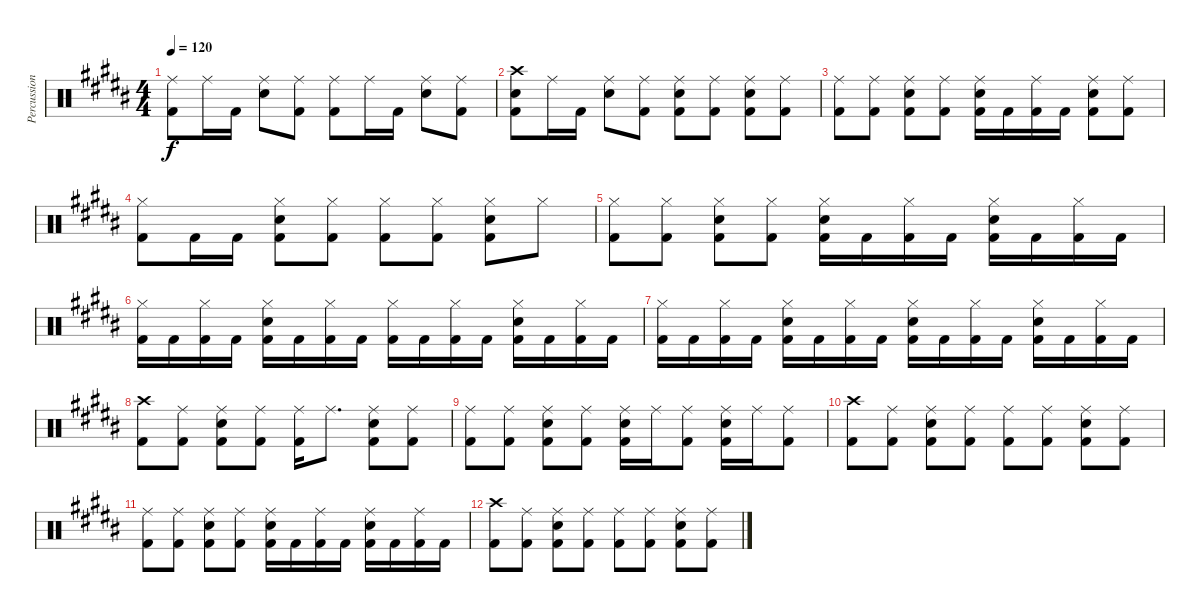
\track ("Percussion" "Percussion") {instrument percussion}
\staff {score}
\articulation defaults
\ts (4 4)
\tempo 120
\clef neutral
\ks b
("Ride (middle)" "Kick (hit) 2").8{dy f} "Ride (middle)".16 "Kick (hit) 2".16 ("Ride (middle)" "Snare (hit) 2").8 ("Ride (middle)" "Kick (hit) 2").8 ("Ride (middle)" "Kick (hit) 2").8 "Ride (middle)".16 "Kick (hit) 2".16 ("Ride (middle)" "Snare (hit) 2").8 ("Ride (middle)" "Kick (hit) 2").8 |
("Crash high (hit)" "Snare (hit) 2" "Kick (hit) 2").8 "Ride (middle)".16 "Kick (hit) 2".16 ("Ride (middle)" "Snare (hit) 2").8 ("Ride (middle)" "Kick (hit) 2").8 ("Ride (middle)" "Kick (hit) 2" "Snare (hit) 2").8 ("Ride (middle)" "Kick (hit) 2").8 ("Ride (middle)" "Kick (hit) 2" "Snare (hit) 2").8 ("Ride (middle)" "Kick (hit) 2").8 |
("Ride (middle)" "Kick (hit) 2").8 ("Ride (middle)" "Kick (hit) 2").8 ("Ride (middle)" "Snare (hit) 2" "Kick (hit) 2").8 ("Ride (middle)" "Kick (hit) 2").8 ("Ride (middle)" "Snare (hit) 2" "Kick (hit) 2").16 "Kick (hit) 2".16 ("Ride (middle)" "Kick (hit) 2").16 "Kick (hit) 2".16 ("Ride (middle)" "Snare (hit) 2" "Kick (hit) 2").8 ("Ride (middle)" "Kick (hit) 2").8 |
("Hi-Hat (closed)" "Kick (hit) 2").8 "Kick (hit) 2".16 "Kick (hit) 2".16 ("Hi-Hat (closed)" "Snare (hit) 2" "Kick (hit) 2").8 ("Hi-Hat (closed)" "Kick (hit) 2").8 ("Hi-Hat (closed)" "Kick (hit) 2").8 ("Hi-Hat (closed)" "Kick (hit) 2").8 ("Hi-Hat (closed)" "Snare (hit) 2" "Kick (hit) 2").8 "Hi-Hat (closed)".8 |
("Hi-Hat (closed)" "Kick (hit) 2").8 ("Hi-Hat (closed)" "Kick (hit) 2").8 ("Hi-Hat (closed)" "Snare (hit) 2" "Kick (hit) 2").8 ("Hi-Hat (closed)" "Kick (hit) 2").8 ("Hi-Hat (closed)" "Snare (hit) 2" "Kick (hit) 2").16 "Kick (hit) 2".16 ("Hi-Hat (closed)" "Kick (hit) 2").16 "Kick (hit) 2".16 ("Hi-Hat (closed)" "Snare (hit) 2" "Kick (hit) 2").16 "Kick (hit) 2".16 ("Hi-Hat (closed)" "Kick (hit) 2").16 "Kick (hit) 2".16 |
("Hi-Hat (closed)" "Kick (hit) 2").16 "Kick (hit) 2".16 ("Hi-Hat (closed)" "Kick (hit) 2").16 "Kick (hit) 2".16 ("Hi-Hat (closed)" "Snare (hit) 2" "Kick (hit) 2").16 "Kick (hit) 2".16 ("Hi-Hat (closed)" "Kick (hit) 2").16 "Kick (hit) 2".16 ("Hi-Hat (closed)" "Kick (hit) 2").16 "Kick (hit) 2".16 ("Hi-Hat (closed)" "Kick (hit) 2").16 "Kick (hit) 2".16 ("Hi-Hat (closed)" "Snare (hit) 2" "Kick (hit) 2").16 "Kick (hit) 2".16 ("Hi-Hat (closed)" "Kick (hit) 2").16 "Kick (hit) 2".16 |
("Hi-Hat (closed)" "Kick (hit) 2").16 "Kick (hit) 2".16 ("Hi-Hat (closed)" "Kick (hit) 2").16 "Kick (hit) 2".16 ("Hi-Hat (closed)" "Snare (hit) 2" "Kick (hit) 2").16 "Kick (hit) 2".16 ("Hi-Hat (closed)" "Kick (hit) 2").16 "Kick (hit) 2".16 ("Hi-Hat (closed)" "Snare (hit) 2" "Kick (hit) 2").16 "Kick (hit) 2".16 ("Hi-Hat (closed)" "Kick (hit) 2").16 "Kick (hit) 2".16 ("Hi-Hat (closed)" "Snare (hit) 2" "Kick (hit) 2").16 "Kick (hit) 2".16 ("Hi-Hat (closed)" "Kick (hit) 2").16 "Kick (hit) 2".16 |
("Crash high (hit)" "Kick (hit) 2").8 ("Ride (middle)" "Kick (hit) 2").8 ("Ride (middle)" "Snare (hit) 2" "Kick (hit) 2").8 ("Ride (middle)" "Kick (hit) 2").8 ("Ride (middle)" "Kick (hit) 2").16 "Ride (middle)".8{d} ("Ride (middle)" "Snare (hit) 2" "Kick (hit) 2").8 ("Ride (middle)" "Kick (hit) 2").8 |
("Ride (middle)" "Kick (hit) 2").8 ("Ride (middle)" "Kick (hit) 2").8 ("Ride (middle)" "Snare (hit) 2" "Kick (hit) 2").8 ("Ride (middle)" "Kick (hit) 2").8 ("Ride (middle)" "Snare (hit) 2" "Kick (hit) 2").16 "Ride (middle)".16 ("Ride (middle)" "Kick (hit) 2").8 ("Ride (middle)" "Snare (hit) 2" "Kick (hit) 2").16 "Ride (middle)".16 ("Ride (middle)" "Kick (hit) 2").8 |
("Crash high (hit)" "Kick (hit) 2").8 ("Ride (middle)" "Kick (hit) 2").8 ("Ride (middle)" "Snare (hit) 2" "Kick (hit) 2").8 ("Ride (middle)" "Kick (hit) 2").8 ("Ride (middle)" "Kick (hit) 2").8 ("Ride (middle)" "Kick (hit) 2").8 ("Ride (middle)" "Snare (hit) 2" "Kick (hit) 2").8 ("Ride (middle)" "Kick (hit) 2").8 |
("Ride (middle)" "Kick (hit) 2").8 ("Ride (middle)" "Kick (hit) 2").8 ("Ride (middle)" "Snare (hit) 2" "Kick (hit) 2").8 ("Ride (middle)" "Kick (hit) 2").8 ("Ride (middle)" "Snare (hit) 2" "Kick (hit) 2").16 "Kick (hit) 2".16 ("Ride (middle)" "Kick (hit) 2").16 "Kick (hit) 2".16 ("Ride (middle)" "Snare (hit) 2" "Kick (hit) 2").16 "Kick (hit) 2".16 ("Ride (middle)" "Kick (hit) 2").16 "Kick (hit) 2".16 |
("Crash high (hit)" "Kick (hit) 2").8 ("Ride (middle)" "Kick (hit) 2").8 ("Ride (middle)" "Snare (hit) 2" "Kick (hit) 2").8 ("Ride (middle)" "Kick (hit) 2").8 ("Ride (middle)" "Kick (hit) 2").8 ("Ride (middle)" "Kick (hit) 2").8 ("Ride (middle)" "Snare (hit) 2" "Kick (hit) 2").8 ("Ride (middle)" "Kick (hit) 2").8
